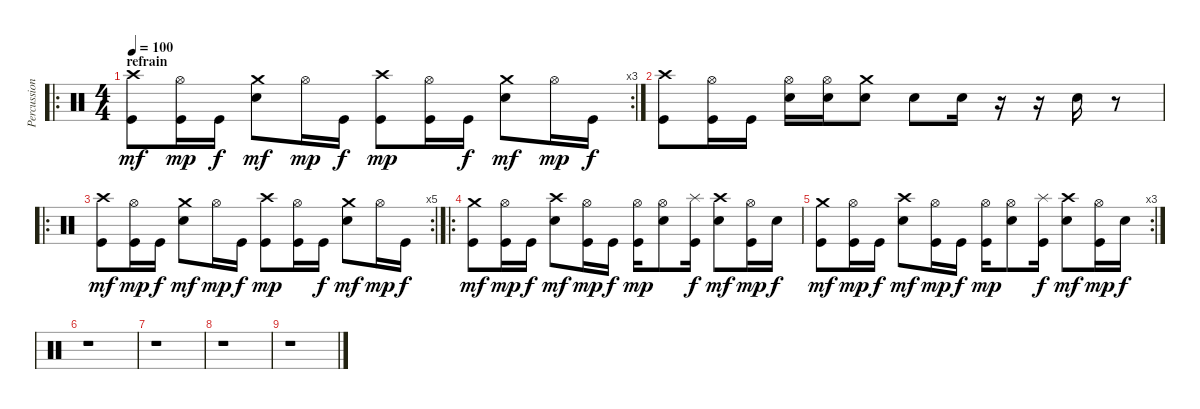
\track ("Percussions" "Percussion") {instrument percussion}
\staff {score}
\articulation defaults
\ro
\rc 3
\ts (4 4)
\section ("" "refrain")
\tempo 100
\clef neutral
\ks c
("Crash high (hit)" "Kick (hit)").8{dy mf} ("Hi-Hat (open)" "Kick (hit)").16{dy mp} "Kick (hit)".16{dy f} ("Crash medium (hit)" "Electric Snare (hit)").8{dy mf} "Hi-Hat (open)".16{dy mp} "Kick (hit)".16{dy f} ("Crash high (hit)" "Kick (hit)").8{dy mp} ("Hi-Hat (open)" "Kick (hit)").16 "Kick (hit)".16{dy f} ("Crash medium (hit)" "Electric Snare (hit)").8{dy mf} "Hi-Hat (open)".16{dy mp} "Kick (hit)".16{dy f} |
("Crash high (hit)" "Kick (hit)").8 ("Hi-Hat (open)" "Kick (hit)").16 "Kick (hit)".16 ("Hi-Hat (open)" "Electric Snare (hit)").16 ("Hi-Hat (open)" "Electric Snare (hit)").16 ("Crash medium (hit)" "Electric Snare (hit)").8 "Electric Snare (hit)".8 "Electric Snare (hit)".16 r.16 r.16 "Electric Snare (hit)".16 r.8 |
\ro
\rc 5
("Crash high (hit)" "Kick (hit)").8{dy mf} ("Hi-Hat (open)" "Kick (hit)").16{dy mp} "Kick (hit)".16{dy f} ("Crash medium (hit)" "Electric Snare (hit)").8{dy mf} "Hi-Hat (open)".16{dy mp} "Kick (hit)".16{dy f} ("Crash high (hit)" "Kick (hit)").8{dy mp} ("Hi-Hat (open)" "Kick (hit)").16 "Kick (hit)".16{dy f} ("Crash medium (hit)" "Electric Snare (hit)").8{dy mf} "Hi-Hat (open)".16{dy mp} "Kick (hit)".16{dy f} |
\ro
("Crash medium (hit)" "Kick (hit)").8{dy mf} ("Hi-Hat (open)" "Kick (hit)").16{dy mp} "Kick (hit)".16{dy f} ("Crash high (hit)" "Electric Snare (hit)").8{dy mf} ("Hi-Hat (open)" "Kick (hit)").16{dy mp} "Kick (hit)".16{dy f} ("Hi-Hat (open)" "Kick (hit)").16{dy mp} ("Hi-Hat (open)" "Electric Snare (hit)").8 ("Splash (hit)" "Kick (hit)").16{dy f} ("Crash high (hit)" "Electric Snare (hit)").8{dy mf} ("Hi-Hat (open)" "Kick (hit)").16{dy mp} "Electric Snare (hit)".16{dy f} |
\rc 3
("Crash medium (hit)" "Kick (hit)").8{dy mf} ("Hi-Hat (open)" "Kick (hit)").16{dy mp} "Kick (hit)".16{dy f} ("Crash high (hit)" "Electric Snare (hit)").8{dy mf} ("Hi-Hat (open)" "Kick (hit)").16{dy mp} "Kick (hit)".16{dy f} ("Hi-Hat (open)" "Kick (hit)").16{dy mp} ("Hi-Hat (open)" "Electric Snare (hit)").8 ("Splash (hit)" "Kick (hit)").16{dy f} ("Crash high (hit)" "Electric Snare (hit)").8{dy mf} ("Hi-Hat (open)" "Kick (hit)").16{dy mp} "Electric Snare (hit)".16{dy f} |
r.1 |
r.1 |
r.1 |
r.1
